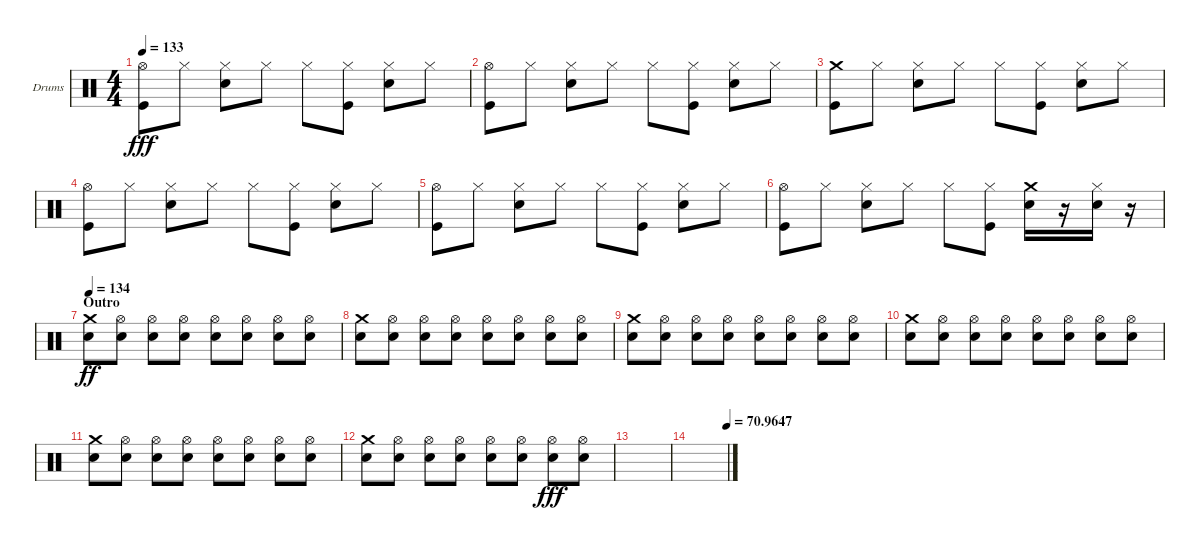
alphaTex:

\bracketExtendMode groupsimilarinstruments
\firstSystemTrackNameOrientation horizontal
\otherSystemsTrackNameOrientation horizontal
\track ("Drumkit" "Drums") {instrument percussion}
\staff {score}
\articulation defaults
\ts (4 4)
\tempo 133
\clef neutral
\ks c
("Hi-Hat (open)" "Kick (hit)").8{dy fff} "Hi-Hat (closed)".8 ("Hi-Hat (closed)" "Snare (hit) 2").8 "Hi-Hat (closed)".8 "Hi-Hat (closed)".8 ("Hi-Hat (closed)" "Kick (hit)").8 ("Hi-Hat (closed)" "Snare (hit) 2").8 "Hi-Hat (closed)".8 |
("Hi-Hat (open)" "Kick (hit)").8 "Hi-Hat (closed)".8 ("Hi-Hat (closed)" "Snare (hit) 2").8 "Hi-Hat (closed)".8 "Hi-Hat (closed)".8 ("Hi-Hat (closed)" "Kick (hit)").8 ("Hi-Hat (closed)" "Snare (hit) 2").8 "Hi-Hat (closed)".8 |
("Crash medium (hit)" "Kick (hit)").8 "Hi-Hat (closed)".8 ("Hi-Hat (closed)" "Snare (hit) 2").8 "Hi-Hat (closed)".8 "Hi-Hat (closed)".8 ("Hi-Hat (closed)" "Kick (hit)").8 ("Hi-Hat (closed)" "Snare (hit) 2").8 "Hi-Hat (closed)".8 |
("Hi-Hat (open)" "Kick (hit)").8 "Hi-Hat (closed)".8 ("Hi-Hat (closed)" "Snare (hit) 2").8 "Hi-Hat (closed)".8 "Hi-Hat (closed)".8 ("Hi-Hat (closed)" "Kick (hit)").8 ("Hi-Hat (closed)" "Snare (hit) 2").8 "Hi-Hat (closed)".8 |
("Hi-Hat (open)" "Kick (hit)").8 "Hi-Hat (closed)".8 ("Hi-Hat (closed)" "Snare (hit) 2").8 "Hi-Hat (closed)".8 "Hi-Hat (closed)".8 ("Hi-Hat (closed)" "Kick (hit)").8 ("Hi-Hat (closed)" "Snare (hit) 2").8 "Hi-Hat (closed)".8 |
("Hi-Hat (open)" "Kick (hit)").8 "Hi-Hat (closed)".8 ("Hi-Hat (closed)" "Snare (hit) 2").8 "Hi-Hat (closed)".8 "Hi-Hat (closed)".8 ("Hi-Hat (closed)" "Kick (hit)").8 ("Crash medium (hit)" "Snare (hit) 2").16 r.16 ("Hi-Hat (closed)" "Snare (hit) 2").16 r.16 |
\section ("" "Outro")
\tempo 134
("Crash medium (hit)" "Snare (hit) 2").8{dy ff} ("Hi-Hat (open)" "Snare (hit) 2").8 ("Hi-Hat (open)" "Snare (hit) 2").8 ("Hi-Hat (open)" "Snare (hit) 2").8 ("Hi-Hat (open)" "Snare (hit) 2").8 ("Hi-Hat (open)" "Snare (hit) 2").8 ("Hi-Hat (open)" "Snare (hit) 2").8 ("Hi-Hat (open)" "Snare (hit) 2").8 |
("Crash medium (hit)" "Snare (hit) 2").8 ("Hi-Hat (open)" "Snare (hit) 2").8 ("Hi-Hat (open)" "Snare (hit) 2").8 ("Hi-Hat (open)" "Snare (hit) 2").8 ("Hi-Hat (open)" "Snare (hit) 2").8 ("Hi-Hat (open)" "Snare (hit) 2").8 ("Hi-Hat (open)" "Snare (hit) 2").8 ("Hi-Hat (open)" "Snare (hit) 2").8 |
("Crash medium (hit)" "Snare (hit) 2").8 ("Hi-Hat (open)" "Snare (hit) 2").8 ("Hi-Hat (open)" "Snare (hit) 2").8 ("Hi-Hat (open)" "Snare (hit) 2").8 ("Hi-Hat (open)" "Snare (hit) 2").8 ("Hi-Hat (open)" "Snare (hit) 2").8 ("Hi-Hat (open)" "Snare (hit) 2").8 ("Hi-Hat (open)" "Snare (hit) 2").8 |
("Crash medium (hit)" "Snare (hit) 2").8 ("Hi-Hat (open)" "Snare (hit) 2").8 ("Hi-Hat (open)" "Snare (hit) 2").8 ("Hi-Hat (open)" "Snare (hit) 2").8 ("Hi-Hat (open)" "Snare (hit) 2").8 ("Hi-Hat (open)" "Snare (hit) 2").8 ("Hi-Hat (open)" "Snare (hit) 2").8 ("Hi-Hat (open)" "Snare (hit) 2").8 |
("Crash medium (hit)" "Snare (hit) 2").8 ("Hi-Hat (open)" "Snare (hit) 2").8 ("Hi-Hat (open)" "Snare (hit) 2").8 ("Hi-Hat (open)" "Snare (hit) 2").8 ("Hi-Hat (open)" "Snare (hit) 2").8 ("Hi-Hat (open)" "Snare (hit) 2").8 ("Hi-Hat (open)" "Snare (hit) 2").8 ("Hi-Hat (open)" "Snare (hit) 2").8 |
("Crash medium (hit)" "Snare (hit) 2").8 ("Hi-Hat (open)" "Snare (hit) 2").8 ("Hi-Hat (open)" "Snare (hit) 2").8 ("Hi-Hat (open)" "Snare (hit) 2").8 ("Hi-Hat (open)" "Snare (hit) 2").8 ("Hi-Hat (open)" "Snare (hit) 2").8 ("Hi-Hat (open)" "Snare (hit) 2").8{dy fff} ("Hi-Hat (open)" "Snare (hit) 2").8 |
|
\tempo (70.9647 1)
